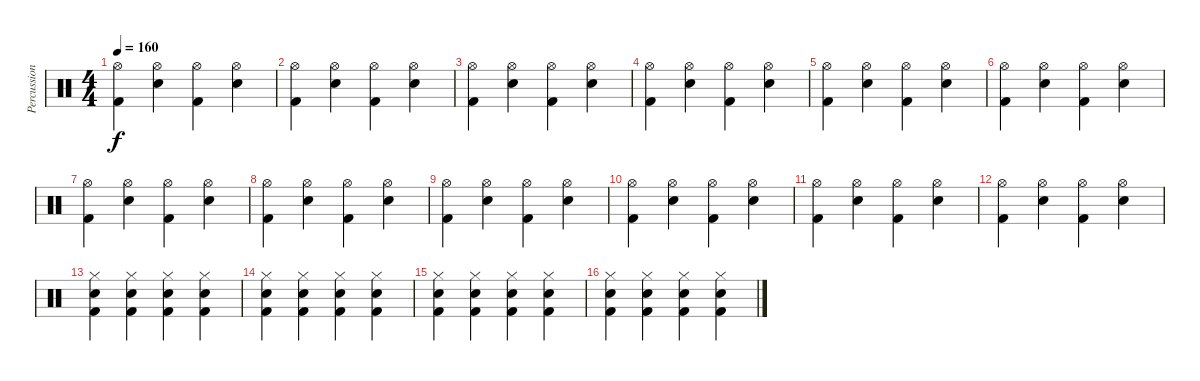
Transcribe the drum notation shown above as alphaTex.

\track ("Percussion" "Percussion") {instrument percussion}
\staff {score}
\articulation defaults
\ts (4 4)
\tempo 160
\clef neutral
\ks c
("Hi-Hat (open)" "Kick (hit) 2").4{dy f} ("Hi-Hat (open)" "Snare (hit) 2").4 ("Hi-Hat (open)" "Kick (hit) 2").4 ("Hi-Hat (open)" "Snare (hit) 2").4 |
("Hi-Hat (open)" "Kick (hit) 2").4 ("Hi-Hat (open)" "Snare (hit) 2").4 ("Hi-Hat (open)" "Kick (hit) 2").4 ("Hi-Hat (open)" "Snare (hit) 2").4 |
("Hi-Hat (open)" "Kick (hit) 2").4 ("Hi-Hat (open)" "Snare (hit) 2").4 ("Hi-Hat (open)" "Kick (hit) 2").4 ("Hi-Hat (open)" "Snare (hit) 2").4 |
("Hi-Hat (open)" "Kick (hit) 2").4 ("Hi-Hat (open)" "Snare (hit) 2").4 ("Hi-Hat (open)" "Kick (hit) 2").4 ("Hi-Hat (open)" "Snare (hit) 2").4 |
("Hi-Hat (open)" "Kick (hit) 2").4 ("Hi-Hat (open)" "Snare (hit) 2").4 ("Hi-Hat (open)" "Kick (hit) 2").4 ("Hi-Hat (open)" "Snare (hit) 2").4 |
("Hi-Hat (open)" "Kick (hit) 2").4 ("Hi-Hat (open)" "Snare (hit) 2").4 ("Hi-Hat (open)" "Kick (hit) 2").4 ("Hi-Hat (open)" "Snare (hit) 2").4 |
("Hi-Hat (open)" "Kick (hit) 2").4 ("Hi-Hat (open)" "Snare (hit) 2").4 ("Hi-Hat (open)" "Kick (hit) 2").4 ("Hi-Hat (open)" "Snare (hit) 2").4 |
("Hi-Hat (open)" "Kick (hit) 2").4 ("Hi-Hat (open)" "Snare (hit) 2").4 ("Hi-Hat (open)" "Kick (hit) 2").4 ("Hi-Hat (open)" "Snare (hit) 2").4 |
("Hi-Hat (open)" "Kick (hit) 2").4 ("Hi-Hat (open)" "Snare (hit) 2").4 ("Hi-Hat (open)" "Kick (hit) 2").4 ("Hi-Hat (open)" "Snare (hit) 2").4 |
("Hi-Hat (open)" "Kick (hit) 2").4 ("Hi-Hat (open)" "Snare (hit) 2").4 ("Hi-Hat (open)" "Kick (hit) 2").4 ("Hi-Hat (open)" "Snare (hit) 2").4 |
("Hi-Hat (open)" "Kick (hit) 2").4 ("Hi-Hat (open)" "Snare (hit) 2").4 ("Hi-Hat (open)" "Kick (hit) 2").4 ("Hi-Hat (open)" "Snare (hit) 2").4 |
("Hi-Hat (open)" "Kick (hit) 2").4 ("Hi-Hat (open)" "Snare (hit) 2").4 ("Hi-Hat (open)" "Kick (hit) 2").4 ("Hi-Hat (open)" "Snare (hit) 2").4 |
("Hi-Hat (closed)" "Snare (hit) 2" "Kick (hit) 2").4 ("Hi-Hat (closed)" "Snare (hit) 2" "Kick (hit) 2").4 ("Hi-Hat (closed)" "Snare (hit) 2" "Kick (hit) 2").4 ("Hi-Hat (closed)" "Snare (hit) 2" "Kick (hit) 2").4 |
("Hi-Hat (closed)" "Snare (hit) 2" "Kick (hit) 2").4 ("Hi-Hat (closed)" "Snare (hit) 2" "Kick (hit) 2").4 ("Hi-Hat (closed)" "Snare (hit) 2" "Kick (hit) 2").4 ("Hi-Hat (closed)" "Snare (hit) 2" "Kick (hit) 2").4 |
("Hi-Hat (closed)" "Snare (hit) 2" "Kick (hit) 2").4 ("Hi-Hat (closed)" "Snare (hit) 2" "Kick (hit) 2").4 ("Hi-Hat (closed)" "Snare (hit) 2" "Kick (hit) 2").4 ("Hi-Hat (closed)" "Snare (hit) 2" "Kick (hit) 2").4 |
("Hi-Hat (closed)" "Snare (hit) 2" "Kick (hit) 2").4 ("Hi-Hat (closed)" "Snare (hit) 2" "Kick (hit) 2").4 ("Hi-Hat (closed)" "Snare (hit) 2" "Kick (hit) 2").4 ("Hi-Hat (closed)" "Snare (hit) 2" "Kick (hit) 2").4
